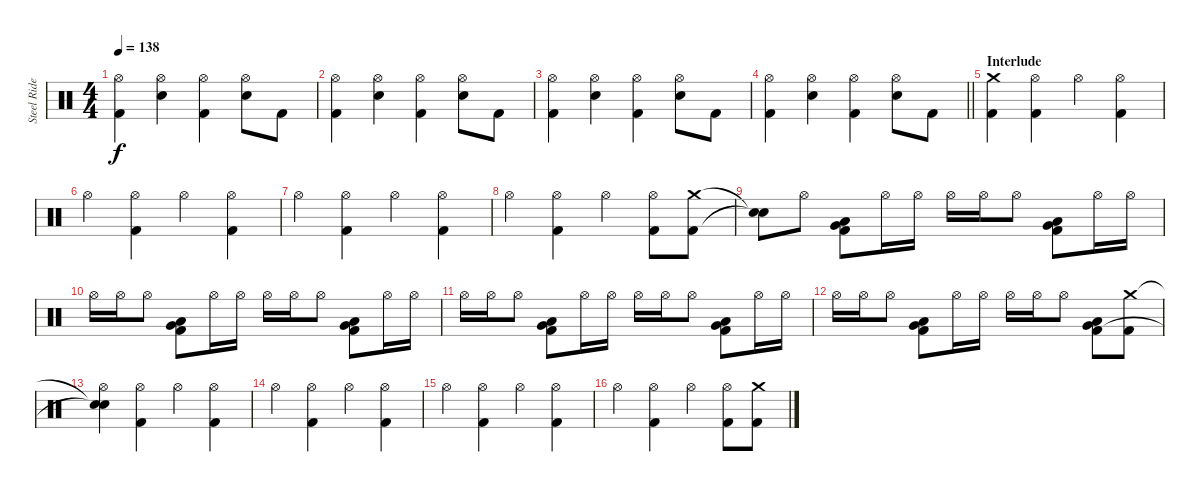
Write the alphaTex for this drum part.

\track ("Steel Rider" "Steel Ride") {instrument percussion}
\staff {score}
\articulation defaults
\ts (4 4)
\tempo 138
\clef neutral
\ks c
("Hi-Hat (open)" "Kick (hit) 2").4{dy f} ("Hi-Hat (open)" "Electric Snare (hit)").4 ("Hi-Hat (open)" "Kick (hit) 2").4 ("Hi-Hat (open)" "Electric Snare (hit)").8 "Kick (hit) 2".8 |
("Hi-Hat (open)" "Kick (hit) 2").4 ("Hi-Hat (open)" "Electric Snare (hit)").4 ("Hi-Hat (open)" "Kick (hit) 2").4 ("Hi-Hat (open)" "Electric Snare (hit)").8 "Kick (hit) 2".8 |
("Hi-Hat (open)" "Kick (hit) 2").4 ("Hi-Hat (open)" "Electric Snare (hit)").4 ("Hi-Hat (open)" "Kick (hit) 2").4 ("Hi-Hat (open)" "Electric Snare (hit)").8 "Kick (hit) 2".8 |
\barLineRight lightlight
("Hi-Hat (open)" "Kick (hit) 2").4 ("Hi-Hat (open)" "Electric Snare (hit)").4 ("Hi-Hat (open)" "Kick (hit) 2").4 ("Hi-Hat (open)" "Electric Snare (hit)").8 "Kick (hit) 2".8 |
\section ("" "Interlude")
("Crash medium (hit)" "Kick (hit) 2").4 ("Hi-Hat (open)" "Kick (hit) 2").4 "Hi-Hat (open)".4 ("Hi-Hat (open)" "Kick (hit) 2").4 |
"Hi-Hat (open)".4 ("Hi-Hat (open)" "Kick (hit) 2").4 "Hi-Hat (open)".4 ("Hi-Hat (open)" "Kick (hit) 2").4 |
"Hi-Hat (open)".4 ("Hi-Hat (open)" "Kick (hit) 2").4 "Hi-Hat (open)".4 ("Hi-Hat (open)" "Kick (hit) 2").4 |
"Hi-Hat (open)".4 ("Hi-Hat (open)" "Kick (hit) 2").4 "Hi-Hat (open)".4 ("Hi-Hat (open)" "Kick (hit) 2").8 ("Crash medium (hit)" "Kick (hit) 2").8 |
("Snare (hit)"{t} "Snare (hit)"{t}).8 "Hi-Hat (open)".8 ("Low Floor Tom (hit)" "Very Low Tom (hit)" "Kick (hit) 2").8 "Hi-Hat (open)".16 "Hi-Hat (open)".16 "Hi-Hat (open)".16 "Hi-Hat (open)".16 "Hi-Hat (open)".8 ("Low Floor Tom (hit)" "Very Low Tom (hit)" "Kick (hit) 2").8 "Hi-Hat (open)".16 "Hi-Hat (open)".16 |
"Hi-Hat (open)".16 "Hi-Hat (open)".16 "Hi-Hat (open)".8 ("Low Floor Tom (hit)" "Very Low Tom (hit)" "Kick (hit) 2").8 "Hi-Hat (open)".16 "Hi-Hat (open)".16 "Hi-Hat (open)".16 "Hi-Hat (open)".16 "Hi-Hat (open)".8 ("Low Floor Tom (hit)" "Very Low Tom (hit)" "Kick (hit) 2").8 "Hi-Hat (open)".16 "Hi-Hat (open)".16 |
"Hi-Hat (open)".16 "Hi-Hat (open)".16 "Hi-Hat (open)".8 ("Low Floor Tom (hit)" "Very Low Tom (hit)" "Kick (hit) 2").8 "Hi-Hat (open)".16 "Hi-Hat (open)".16 "Hi-Hat (open)".16 "Hi-Hat (open)".16 "Hi-Hat (open)".8 ("Low Floor Tom (hit)" "Very Low Tom (hit)" "Kick (hit) 2").8 "Hi-Hat (open)".16 "Hi-Hat (open)".16 |
"Hi-Hat (open)".16 "Hi-Hat (open)".16 "Hi-Hat (open)".8 ("Low Floor Tom (hit)" "Very Low Tom (hit)" "Kick (hit) 2").8 "Hi-Hat (open)".16 "Hi-Hat (open)".16 "Hi-Hat (open)".16 "Hi-Hat (open)".16 "Hi-Hat (open)".8 ("Low Floor Tom (hit)" "Very Low Tom (hit)" "Kick (hit) 2").8 ("Crash medium (hit)" "Kick (hit) 2").8 |
("Snare (hit)"{t} "Hi-Hat (open)" "Snare (hit)"{t}).4 ("Hi-Hat (open)" "Kick (hit) 2").4 "Hi-Hat (open)".4 ("Hi-Hat (open)" "Kick (hit) 2").4 |
"Hi-Hat (open)".4 ("Hi-Hat (open)" "Kick (hit) 2").4 "Hi-Hat (open)".4 ("Hi-Hat (open)" "Kick (hit) 2").4 |
"Hi-Hat (open)".4 ("Hi-Hat (open)" "Kick (hit) 2").4 "Hi-Hat (open)".4 ("Hi-Hat (open)" "Kick (hit) 2").4 |
"Hi-Hat (open)".4 ("Hi-Hat (open)" "Kick (hit) 2").4 "Hi-Hat (open)".4 ("Hi-Hat (open)" "Kick (hit) 2").8 ("Crash medium (hit)" "Kick (hit) 2").8
